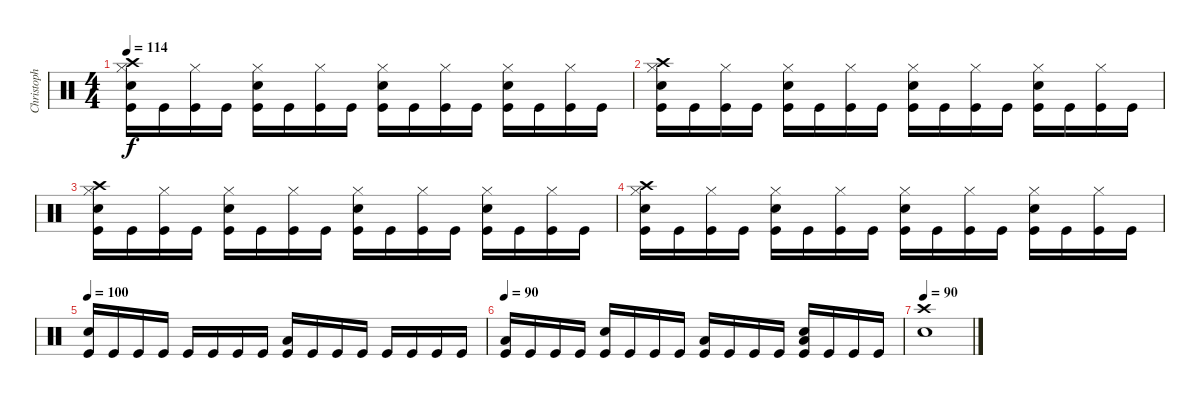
\track ("Christoph - Drums" "Christoph ") {instrument percussion}
\staff {score}
\articulation defaults
\ts (4 4)
\tempo 114
\clef neutral
\ks c
("Crash high (hit)" "Hi-Hat (closed)" "Snare (hit) 2" "Kick (hit)").16{dy f} "Kick (hit)".16 ("Hi-Hat (closed)" "Kick (hit)").16 "Kick (hit)".16 ("Hi-Hat (closed)" "Snare (hit) 2" "Kick (hit)").16 "Kick (hit)".16 ("Hi-Hat (closed)" "Kick (hit)").16 "Kick (hit)".16 ("Hi-Hat (closed)" "Snare (hit) 2" "Kick (hit)").16 "Kick (hit)".16 ("Hi-Hat (closed)" "Kick (hit)").16 "Kick (hit)".16 ("Hi-Hat (closed)" "Snare (hit) 2" "Kick (hit)").16 "Kick (hit)".16 ("Hi-Hat (closed)" "Kick (hit)").16 "Kick (hit)".16 |
("Crash high (hit)" "Hi-Hat (closed)" "Snare (hit) 2" "Kick (hit)").16 "Kick (hit)".16 ("Hi-Hat (closed)" "Kick (hit)").16 "Kick (hit)".16 ("Hi-Hat (closed)" "Snare (hit) 2" "Kick (hit)").16 "Kick (hit)".16 ("Hi-Hat (closed)" "Kick (hit)").16 "Kick (hit)".16 ("Hi-Hat (closed)" "Snare (hit) 2" "Kick (hit)").16 "Kick (hit)".16 ("Hi-Hat (closed)" "Kick (hit)").16 "Kick (hit)".16 ("Hi-Hat (closed)" "Snare (hit) 2" "Kick (hit)").16 "Kick (hit)".16 ("Hi-Hat (closed)" "Kick (hit)").16 "Kick (hit)".16 |
("Crash high (hit)" "Hi-Hat (closed)" "Snare (hit) 2" "Kick (hit)").16 "Kick (hit)".16 ("Hi-Hat (closed)" "Kick (hit)").16 "Kick (hit)".16 ("Hi-Hat (closed)" "Snare (hit) 2" "Kick (hit)").16 "Kick (hit)".16 ("Hi-Hat (closed)" "Kick (hit)").16 "Kick (hit)".16 ("Hi-Hat (closed)" "Snare (hit) 2" "Kick (hit)").16 "Kick (hit)".16 ("Hi-Hat (closed)" "Kick (hit)").16 "Kick (hit)".16 ("Hi-Hat (closed)" "Snare (hit) 2" "Kick (hit)").16 "Kick (hit)".16 ("Hi-Hat (closed)" "Kick (hit)").16 "Kick (hit)".16 |
("Crash high (hit)" "Hi-Hat (closed)" "Snare (hit) 2" "Kick (hit)").16 "Kick (hit)".16 ("Hi-Hat (closed)" "Kick (hit)").16 "Kick (hit)".16 ("Hi-Hat (closed)" "Snare (hit) 2" "Kick (hit)").16 "Kick (hit)".16 ("Hi-Hat (closed)" "Kick (hit)").16 "Kick (hit)".16 ("Hi-Hat (closed)" "Snare (hit) 2" "Kick (hit)").16 "Kick (hit)".16 ("Hi-Hat (closed)" "Kick (hit)").16 "Kick (hit)".16 ("Hi-Hat (closed)" "Snare (hit) 2" "Kick (hit)").16 "Kick (hit)".16 ("Hi-Hat (closed)" "Kick (hit)").16 "Kick (hit)".16 |
\tempo 100
("Snare (hit) 2" "Kick (hit)").16 "Kick (hit)".16 "Kick (hit)".16 "Kick (hit)".16 "Kick (hit)".16 "Kick (hit)".16 "Kick (hit)".16 "Kick (hit)".16 ("Low Tom (hit)" "Kick (hit)").16 "Kick (hit)".16 "Kick (hit)".16 "Kick (hit)".16 "Kick (hit)".16 "Kick (hit)".16 "Kick (hit)".16 "Kick (hit)".16 |
\tempo 90
("Low Tom (hit)" "Kick (hit)").16 "Kick (hit)".16 "Kick (hit)".16 "Kick (hit)".16 ("Snare (hit) 2" "Kick (hit)").16 "Kick (hit)".16 "Kick (hit)".16 "Kick (hit)".16 ("Low Tom (hit)" "Kick (hit)").16 "Kick (hit)".16 "Kick (hit)".16 "Kick (hit)".16 ("Low Tom (hit)" "Snare (hit) 2" "Kick (hit)").16 "Kick (hit)".16 "Kick (hit)".16 "Kick (hit)".16 |
\tempo 90
("Crash high (hit)" "Snare (hit) 2").1
